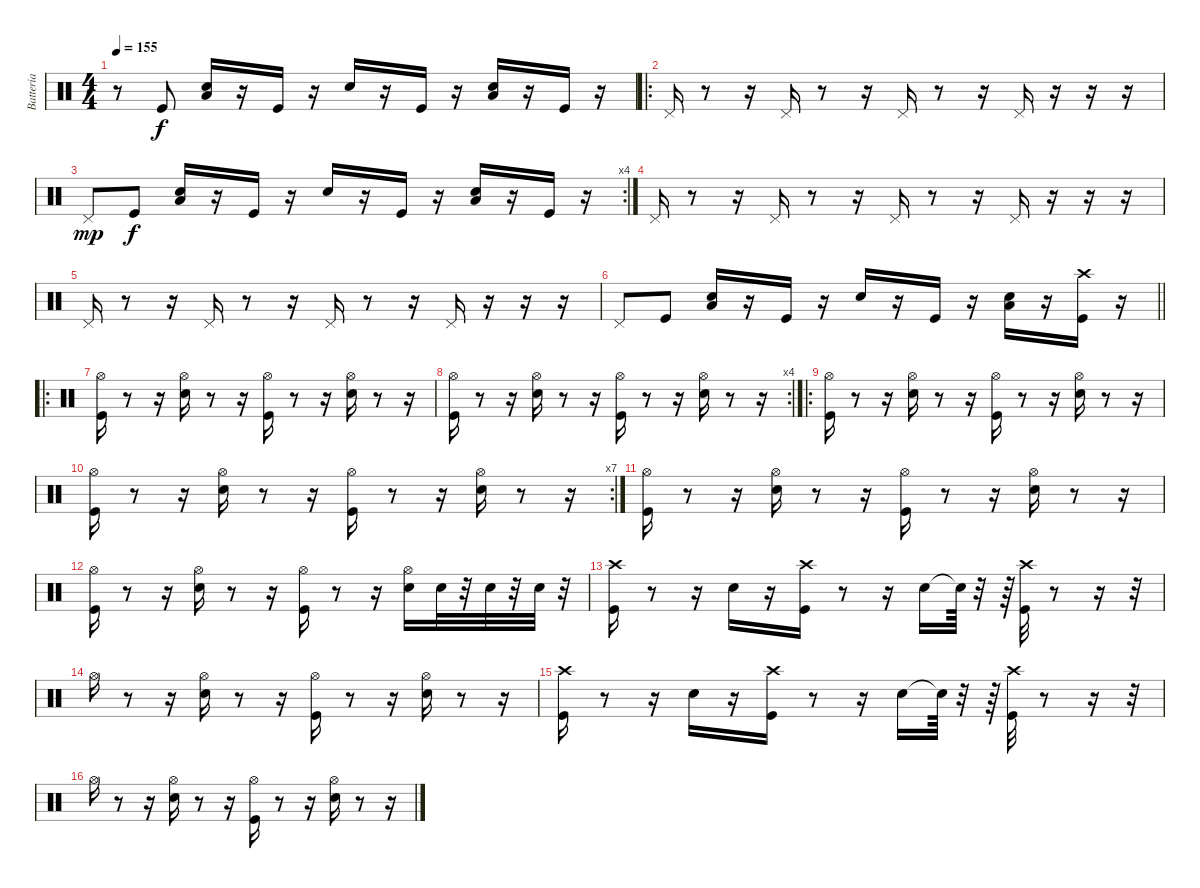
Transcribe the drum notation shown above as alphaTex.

\track ("Batteria" "Batteria") {instrument percussion bank 20}
\staff {score}
\articulation defaults
\ts (4 4)
\tempo 155
\clef neutral
\ks c
r.8{dy f} "Kick (hit)".8 ("Snare (hit) 2" "Low Tom (hit)").16 r.16 "Kick (hit)".16 r.16 "Snare (hit) 2".16 r.16 "Kick (hit)".16 r.16 ("Snare (hit) 2" "Low Tom (hit)").16 r.16 "Kick (hit)".16 r.16 |
\ro "Pedal Hi-Hat (hit)".16
r.8 r.16 "Pedal Hi-Hat (hit)".16 r.8 r.16 "Pedal Hi-Hat (hit)".16 r.8 r.16 "Pedal Hi-Hat (hit)".16 r.16 r.16 r.16 |
\rc 4 "Pedal Hi-Hat (hit)".8{dy mp} "Kick (hit)".8{dy f}
("Snare (hit) 2" "Low Tom (hit)").16 r.16 "Kick (hit)".16 r.16 "Snare (hit) 2".16 r.16 "Kick (hit)".16 r.16 ("Snare (hit) 2" "Low Tom (hit)").16 r.16 "Kick (hit)".16 r.16 |
"Pedal Hi-Hat (hit)".16 r.8 r.16 "Pedal Hi-Hat (hit)".16 r.8 r.16 "Pedal Hi-Hat (hit)".16 r.8 r.16 "Pedal Hi-Hat (hit)".16 r.16 r.16 r.16 |
"Pedal Hi-Hat (hit)".16 r.8 r.16 "Pedal Hi-Hat (hit)".16 r.8 r.16 "Pedal Hi-Hat (hit)".16 r.8 r.16 "Pedal Hi-Hat (hit)".16 r.16 r.16 r.16 |
\barLineRight lightlight "Pedal Hi-Hat (hit)".8 "Kick (hit)".8
("Snare (hit) 2" "Low Tom (hit)").16 r.16 "Kick (hit)".16 r.16 "Snare (hit) 2".16 r.16 "Kick (hit)".16 r.16 ("Snare (hit) 2" "Low Tom (hit)").16 r.16 ("Kick (hit)" "Crash high (hit)").16 r.16 |
\ro
("Hi-Hat (open)" "Kick (hit)").16 r.8 r.16 ("Hi-Hat (open)" "Snare (hit) 2").16 r.8 r.16 ("Kick (hit)" "Hi-Hat (open)").16 r.8 r.16 ("Snare (hit) 2" "Hi-Hat (open)").16 r.8 r.16 |
\rc 4
("Hi-Hat (open)" "Kick (hit)").16 r.8 r.16 ("Hi-Hat (open)" "Snare (hit) 2").16 r.8 r.16 ("Kick (hit)" "Hi-Hat (open)").16 r.8 r.16 ("Snare (hit) 2" "Hi-Hat (open)").16 r.8 r.16 |
\ro
("Hi-Hat (open)" "Kick (hit)").16 r.8 r.16 ("Hi-Hat (open)" "Snare (hit) 2").16 r.8 r.16 ("Kick (hit)" "Hi-Hat (open)").16 r.8 r.16 ("Snare (hit) 2" "Hi-Hat (open)").16 r.8 r.16 |
\rc 7
("Hi-Hat (open)" "Kick (hit)").16 r.8 r.16 ("Hi-Hat (open)" "Snare (hit) 2").16 r.8 r.16 ("Kick (hit)" "Hi-Hat (open)").16 r.8 r.16 ("Snare (hit) 2" "Hi-Hat (open)").16 r.8 r.16 |
("Hi-Hat (open)" "Kick (hit)").16 r.8 r.16 ("Hi-Hat (open)" "Snare (hit) 2").16 r.8 r.16 ("Kick (hit)" "Hi-Hat (open)").16 r.8 r.16 ("Snare (hit) 2" "Hi-Hat (open)").16 r.8 r.16 |
("Kick (hit)" "Hi-Hat (open)").16 r.8 r.16 ("Snare (hit) 2" "Hi-Hat (open)").16 r.8 r.16 ("Kick (hit)" "Hi-Hat (open)").16 r.8 r.16 ("Snare (hit) 2" "Hi-Hat (open)").16 "Snare (hit) 2".32 r.32 "Electric Snare (hit)".32 r.32 "Electric Snare (hit)".32 r.32 |
("Crash high (hit)" "Kick (hit)").16 r.8 r.16 "Snare (hit) 2".16 r.16 ("Kick (hit)" "Crash high (hit)").16 r.8 r.16 "Snare (hit) 2".16 "Snare (hit)"{t}.64 r.32 r.64 ("Kick (hit)" "Crash high (hit)").32 r.8 r.16 r.32 |
"Hi-Hat (open)".16 r.8 r.16 ("Hi-Hat (open)" "Snare (hit) 2").16 r.8 r.16 ("Hi-Hat (open)" "Kick (hit)").16 r.8 r.16 ("Hi-Hat (open)" "Snare (hit) 2").16 r.8 r.16 |
("Kick (hit)" "Crash high (hit)").16 r.8 r.16 "Snare (hit) 2".16 r.16 ("Kick (hit)" "Crash high (hit)").16 r.8 r.16 "Snare (hit) 2".16 "Snare (hit)"{t}.64 r.32 r.64 ("Kick (hit)" "Crash high (hit)").32 r.8 r.16 r.32 |
"Hi-Hat (open)".16 r.8 r.16 ("Hi-Hat (open)" "Snare (hit) 2").16 r.8 r.16 ("Hi-Hat (open)" "Kick (hit)").16 r.8 r.16 ("Hi-Hat (open)" "Snare (hit) 2").16 r.8 r.16
